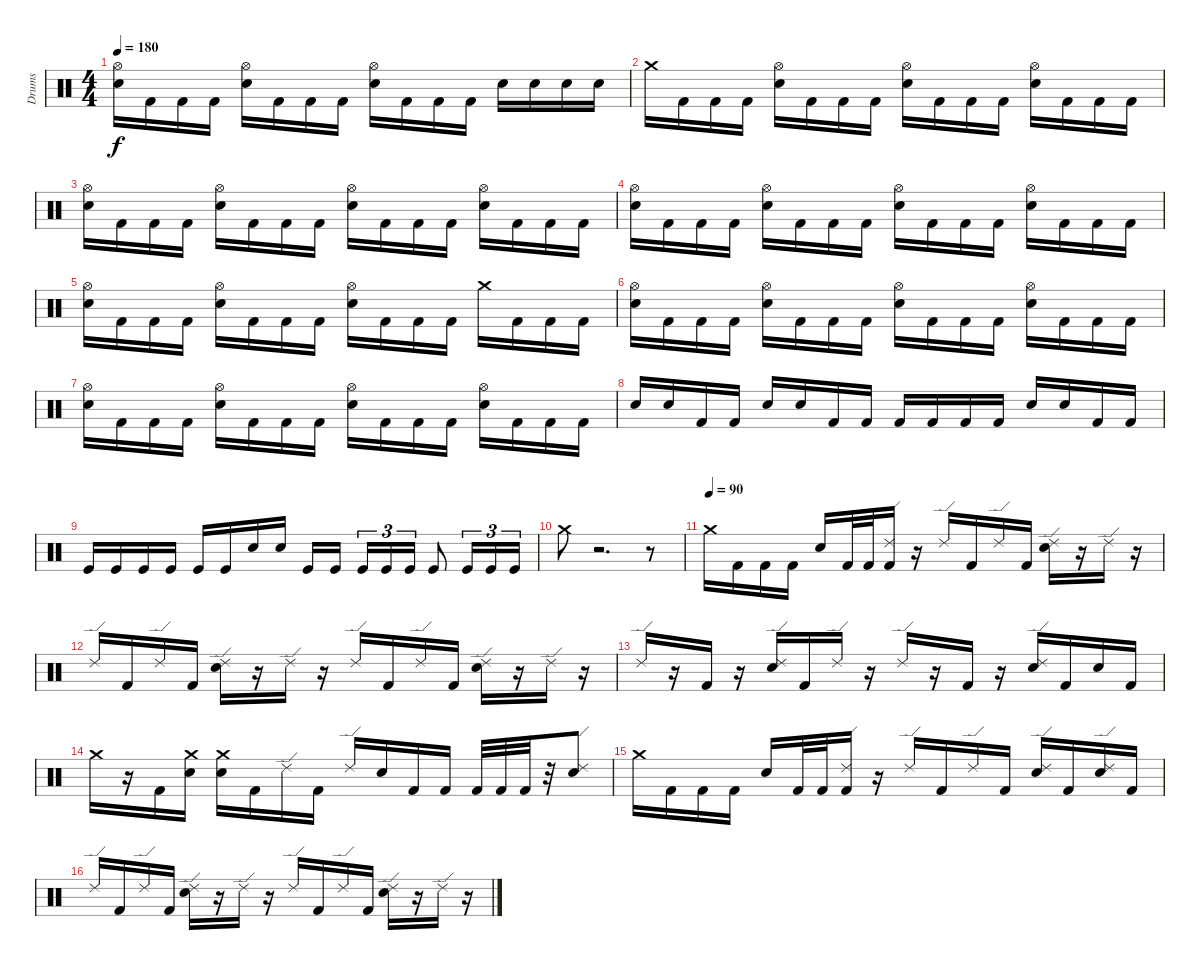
\track ("Drums" "Drums") {instrument percussion}
\staff {score}
\articulation defaults
\ts (4 4)
\tempo 180
\clef neutral
\ks c
("Hi-Hat (open)" "Electric Snare (hit)").16{dy f} "Kick (hit) 2".16 "Kick (hit) 2".16 "Kick (hit) 2".16 ("Hi-Hat (open)" "Electric Snare (hit)").16 "Kick (hit) 2".16 "Kick (hit) 2".16 "Kick (hit) 2".16 ("Hi-Hat (open)" "Electric Snare (hit)").16 "Kick (hit) 2".16 "Kick (hit) 2".16 "Kick (hit) 2".16 "Electric Snare (hit)".16 "Electric Snare (hit)".16 "Electric Snare (hit)".16 "Electric Snare (hit)".16 |
"Crash medium (hit)".16 "Kick (hit) 2".16 "Kick (hit) 2".16 "Kick (hit) 2".16 ("Hi-Hat (open)" "Electric Snare (hit)").16 "Kick (hit) 2".16 "Kick (hit) 2".16 "Kick (hit) 2".16 ("Hi-Hat (open)" "Electric Snare (hit)").16 "Kick (hit) 2".16 "Kick (hit) 2".16 "Kick (hit) 2".16 ("Hi-Hat (open)" "Electric Snare (hit)").16 "Kick (hit) 2".16 "Kick (hit) 2".16 "Kick (hit) 2".16 |
("Hi-Hat (open)" "Electric Snare (hit)").16 "Kick (hit) 2".16 "Kick (hit) 2".16 "Kick (hit) 2".16 ("Hi-Hat (open)" "Electric Snare (hit)").16 "Kick (hit) 2".16 "Kick (hit) 2".16 "Kick (hit) 2".16 ("Hi-Hat (open)" "Electric Snare (hit)").16 "Kick (hit) 2".16 "Kick (hit) 2".16 "Kick (hit) 2".16 ("Hi-Hat (open)" "Electric Snare (hit)").16 "Kick (hit) 2".16 "Kick (hit) 2".16 "Kick (hit) 2".16 |
("Hi-Hat (open)" "Electric Snare (hit)").16 "Kick (hit) 2".16 "Kick (hit) 2".16 "Kick (hit) 2".16 ("Hi-Hat (open)" "Electric Snare (hit)").16 "Kick (hit) 2".16 "Kick (hit) 2".16 "Kick (hit) 2".16 ("Hi-Hat (open)" "Electric Snare (hit)").16 "Kick (hit) 2".16 "Kick (hit) 2".16 "Kick (hit) 2".16 ("Hi-Hat (open)" "Electric Snare (hit)").16 "Kick (hit) 2".16 "Kick (hit) 2".16 "Kick (hit) 2".16 |
("Hi-Hat (open)" "Electric Snare (hit)").16 "Kick (hit) 2".16 "Kick (hit) 2".16 "Kick (hit) 2".16 ("Hi-Hat (open)" "Electric Snare (hit)").16 "Kick (hit) 2".16 "Kick (hit) 2".16 "Kick (hit) 2".16 ("Hi-Hat (open)" "Electric Snare (hit)").16 "Kick (hit) 2".16 "Kick (hit) 2".16 "Kick (hit) 2".16 "Crash medium (hit)".16 "Kick (hit) 2".16 "Kick (hit) 2".16 "Kick (hit) 2".16 |
("Hi-Hat (open)" "Electric Snare (hit)").16 "Kick (hit) 2".16 "Kick (hit) 2".16 "Kick (hit) 2".16 ("Hi-Hat (open)" "Electric Snare (hit)").16 "Kick (hit) 2".16 "Kick (hit) 2".16 "Kick (hit) 2".16 ("Hi-Hat (open)" "Electric Snare (hit)").16 "Kick (hit) 2".16 "Kick (hit) 2".16 "Kick (hit) 2".16 ("Hi-Hat (open)" "Electric Snare (hit)").16 "Kick (hit) 2".16 "Kick (hit) 2".16 "Kick (hit) 2".16 |
("Hi-Hat (open)" "Electric Snare (hit)").16 "Kick (hit) 2".16 "Kick (hit) 2".16 "Kick (hit) 2".16 ("Hi-Hat (open)" "Electric Snare (hit)").16 "Kick (hit) 2".16 "Kick (hit) 2".16 "Kick (hit) 2".16 ("Hi-Hat (open)" "Electric Snare (hit)").16 "Kick (hit) 2".16 "Kick (hit) 2".16 "Kick (hit) 2".16 ("Hi-Hat (open)" "Electric Snare (hit)").16 "Kick (hit) 2".16 "Kick (hit) 2".16 "Kick (hit) 2".16 |
"Electric Snare (hit)".16 "Electric Snare (hit)".16 "Kick (hit) 2".16 "Kick (hit) 2".16 "Electric Snare (hit)".16 "Electric Snare (hit)".16 "Kick (hit) 2".16 "Kick (hit) 2".16 "Kick (hit) 2".16 "Kick (hit) 2".16 "Kick (hit) 2".16 "Kick (hit) 2".16 "Electric Snare (hit)".16 "Electric Snare (hit)".16 "Kick (hit) 2".16 "Kick (hit) 2".16 |
"Kick (hit)".16 "Kick (hit)".16 "Kick (hit)".16 "Kick (hit)".16 "Kick (hit)".16 "Kick (hit)".16 "Electric Snare (hit)".16 "Electric Snare (hit)".16 "Kick (hit)".16 "Kick (hit)".16{beam splitsecondary} "Kick (hit)".16{tu (3 2)} "Kick (hit)".16{tu (3 2)} "Kick (hit)".16{tu (3 2)} "Kick (hit)".8 "Kick (hit)".16{tu (3 2)} "Kick (hit)".16{tu (3 2)} "Kick (hit)".16{tu (3 2)} |
"Crash medium (hit)".8 r.2{d} r.8 |
\tempo (90)
"Crash medium (hit)".16 "Kick (hit) 2".16 "Kick (hit) 2".16 "Kick (hit) 2".16 "Electric Snare (hit)".16 "Kick (hit) 2".32 "Kick (hit) 2".32 ("Ride (edge) 2" "Kick (hit) 2").16 r.16 "Ride (edge) 2".16 "Kick (hit) 2".16 "Ride (edge) 2".16 "Kick (hit) 2".16 ("Ride (edge) 2" "Electric Snare (hit)").16 r.16 "Ride (edge) 2".16 r.16 |
"Ride (edge) 2".16 "Kick (hit) 2".16 "Ride (edge) 2".16 "Kick (hit) 2".16 ("Ride (edge) 2" "Electric Snare (hit)").16 r.16 "Ride (edge) 2".16 r.16 "Ride (edge) 2".16 "Kick (hit) 2".16 "Ride (edge) 2".16 "Kick (hit) 2".16 ("Ride (edge) 2" "Electric Snare (hit)").16 r.16 "Ride (edge) 2".16 r.16 |
"Ride (edge) 2".16 r.16 "Kick (hit) 2".16 r.16 ("Ride (edge) 2" "Electric Snare (hit)").16 "Kick (hit) 2".16 "Ride (edge) 2".16 r.16 "Ride (edge) 2".16 r.16 "Kick (hit) 2".16 r.16 ("Ride (edge) 2" "Electric Snare (hit)").16 "Kick (hit) 2".16 "Electric Snare (hit)".16 "Kick (hit) 2".16 |
"Crash medium (hit)".16 r.16 "Kick (hit) 2".16 ("Crash medium (hit)" "Electric Snare (hit)").16 ("Crash medium (hit)" "Electric Snare (hit)").16 "Kick (hit) 2".16 "Ride (edge) 2".16 "Kick (hit) 2".16 "Ride (edge) 2".16 "Electric Snare (hit)".16 "Kick (hit) 2".16 "Kick (hit) 2".16 "Kick (hit) 2".32 "Kick (hit) 2".32 "Kick (hit) 2".32 r.32 ("Ride (edge) 2" "Electric Snare (hit)").8 |
"Crash medium (hit)".16 "Kick (hit) 2".16 "Kick (hit) 2".16 "Kick (hit) 2".16 "Electric Snare (hit)".16 "Kick (hit) 2".32 "Kick (hit) 2".32 ("Ride (edge) 2" "Kick (hit) 2").16 r.16 "Ride (edge) 2".16 "Kick (hit) 2".16 "Ride (edge) 2".16 "Kick (hit) 2".16 ("Ride (edge) 2" "Electric Snare (hit)").16 "Kick (hit) 2".16 ("Ride (edge) 2" "Electric Snare (hit)").16 "Kick (hit) 2".16 |
"Ride (edge) 2".16 "Kick (hit) 2".16 "Ride (edge) 2".16 "Kick (hit) 2".16 ("Ride (edge) 2" "Electric Snare (hit)").16 r.16 "Ride (edge) 2".16 r.16 "Ride (edge) 2".16 "Kick (hit) 2".16 "Ride (edge) 2".16 "Kick (hit) 2".16 ("Ride (edge) 2" "Electric Snare (hit)").16 r.16 "Ride (edge) 2".16 r.16
